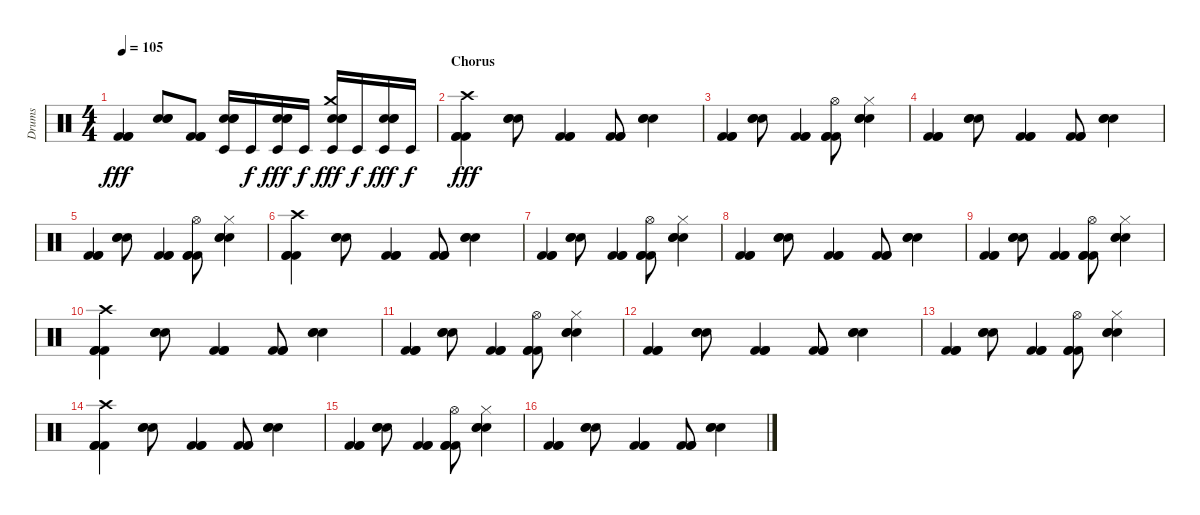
\track ("Drums" "Drums") {instrument percussion}
\staff {score}
\articulation defaults
\ts (4 4)
\tempo 105
\clef neutral
\ks c
("Kick (hit) 2" "Kick (hit) 2" "Kick (hit) 2").4{dy fff} ("Electric Snare (hit)" "Electric Snare (hit)" "Electric Snare (hit)").8 ("Kick (hit) 2" "Kick (hit) 2" "Kick (hit) 2").8 ("Electric Snare (hit)" "Electric Snare (hit)" "Electric Snare (hit)" "Timbale low (hit)").16 "Timbale low (hit)".16{dy f} ("Electric Snare (hit)" "Electric Snare (hit)" "Electric Snare (hit)" "Timbale low (hit)").16{dy fff} "Timbale low (hit)".16{dy f} ("Electric Snare (hit)" "Electric Snare (hit)" "Electric Snare (hit)" "Timbale low (hit)" "Crash medium (hit)").16{dy fff} "Timbale low (hit)".16{dy f} ("Electric Snare (hit)" "Electric Snare (hit)" "Electric Snare (hit)" "Timbale low (hit)").16{dy fff} "Timbale low (hit)".16{dy f} |
\section ("" "Chorus")
("Kick (hit) 2" "Kick (hit) 2" "Kick (hit) 2" "Crash high (hit)").4{dy fff} ("Electric Snare (hit)" "Electric Snare (hit)" "Electric Snare (hit)").8 ("Kick (hit) 2" "Kick (hit) 2" "Kick (hit) 2").4 ("Kick (hit) 2" "Kick (hit) 2" "Kick (hit) 2").8 ("Electric Snare (hit)" "Electric Snare (hit)" "Electric Snare (hit)").4 |
("Kick (hit) 2" "Kick (hit) 2" "Kick (hit) 2").4 ("Electric Snare (hit)" "Electric Snare (hit)" "Electric Snare (hit)").8 ("Kick (hit) 2" "Kick (hit) 2" "Kick (hit) 2").4 ("Kick (hit) 2" "Kick (hit) 2" "Kick (hit) 2" "Hi-Hat (open)").8 ("Electric Snare (hit)" "Electric Snare (hit)" "Electric Snare (hit)" "Hi-Hat (closed)").4 |
("Kick (hit) 2" "Kick (hit) 2" "Kick (hit) 2").4 ("Electric Snare (hit)" "Electric Snare (hit)" "Electric Snare (hit)").8 ("Kick (hit) 2" "Kick (hit) 2" "Kick (hit) 2").4 ("Kick (hit) 2" "Kick (hit) 2" "Kick (hit) 2").8 ("Electric Snare (hit)" "Electric Snare (hit)" "Electric Snare (hit)").4 |
("Kick (hit) 2" "Kick (hit) 2" "Kick (hit) 2").4 ("Electric Snare (hit)" "Electric Snare (hit)" "Electric Snare (hit)").8 ("Kick (hit) 2" "Kick (hit) 2" "Kick (hit) 2").4 ("Kick (hit) 2" "Kick (hit) 2" "Kick (hit) 2" "Hi-Hat (open)").8 ("Electric Snare (hit)" "Electric Snare (hit)" "Electric Snare (hit)" "Hi-Hat (closed)").4 |
("Kick (hit) 2" "Kick (hit) 2" "Kick (hit) 2" "Crash high (hit)").4 ("Electric Snare (hit)" "Electric Snare (hit)" "Electric Snare (hit)").8 ("Kick (hit) 2" "Kick (hit) 2" "Kick (hit) 2").4 ("Kick (hit) 2" "Kick (hit) 2" "Kick (hit) 2").8 ("Electric Snare (hit)" "Electric Snare (hit)" "Electric Snare (hit)").4 |
("Kick (hit) 2" "Kick (hit) 2" "Kick (hit) 2").4 ("Electric Snare (hit)" "Electric Snare (hit)" "Electric Snare (hit)").8 ("Kick (hit) 2" "Kick (hit) 2" "Kick (hit) 2").4 ("Kick (hit) 2" "Kick (hit) 2" "Kick (hit) 2" "Hi-Hat (open)").8 ("Electric Snare (hit)" "Electric Snare (hit)" "Electric Snare (hit)" "Hi-Hat (closed)").4 |
("Kick (hit) 2" "Kick (hit) 2" "Kick (hit) 2").4 ("Electric Snare (hit)" "Electric Snare (hit)" "Electric Snare (hit)").8 ("Kick (hit) 2" "Kick (hit) 2" "Kick (hit) 2").4 ("Kick (hit) 2" "Kick (hit) 2" "Kick (hit) 2").8 ("Electric Snare (hit)" "Electric Snare (hit)" "Electric Snare (hit)").4 |
("Kick (hit) 2" "Kick (hit) 2" "Kick (hit) 2").4 ("Electric Snare (hit)" "Electric Snare (hit)" "Electric Snare (hit)").8 ("Kick (hit) 2" "Kick (hit) 2" "Kick (hit) 2").4 ("Kick (hit) 2" "Kick (hit) 2" "Kick (hit) 2" "Hi-Hat (open)").8 ("Electric Snare (hit)" "Electric Snare (hit)" "Electric Snare (hit)" "Hi-Hat (closed)").4 |
("Kick (hit) 2" "Kick (hit) 2" "Kick (hit) 2" "Crash high (hit)").4 ("Electric Snare (hit)" "Electric Snare (hit)" "Electric Snare (hit)").8 ("Kick (hit) 2" "Kick (hit) 2" "Kick (hit) 2").4 ("Kick (hit) 2" "Kick (hit) 2" "Kick (hit) 2").8 ("Electric Snare (hit)" "Electric Snare (hit)" "Electric Snare (hit)").4 |
("Kick (hit) 2" "Kick (hit) 2" "Kick (hit) 2").4 ("Electric Snare (hit)" "Electric Snare (hit)" "Electric Snare (hit)").8 ("Kick (hit) 2" "Kick (hit) 2" "Kick (hit) 2").4 ("Kick (hit) 2" "Kick (hit) 2" "Kick (hit) 2" "Hi-Hat (open)").8 ("Electric Snare (hit)" "Electric Snare (hit)" "Electric Snare (hit)" "Hi-Hat (closed)").4 |
("Kick (hit) 2" "Kick (hit) 2" "Kick (hit) 2").4 ("Electric Snare (hit)" "Electric Snare (hit)" "Electric Snare (hit)").8 ("Kick (hit) 2" "Kick (hit) 2" "Kick (hit) 2").4 ("Kick (hit) 2" "Kick (hit) 2" "Kick (hit) 2").8 ("Electric Snare (hit)" "Electric Snare (hit)" "Electric Snare (hit)").4 |
("Kick (hit) 2" "Kick (hit) 2" "Kick (hit) 2").4 ("Electric Snare (hit)" "Electric Snare (hit)" "Electric Snare (hit)").8 ("Kick (hit) 2" "Kick (hit) 2" "Kick (hit) 2").4 ("Kick (hit) 2" "Kick (hit) 2" "Kick (hit) 2" "Hi-Hat (open)").8 ("Electric Snare (hit)" "Electric Snare (hit)" "Electric Snare (hit)" "Hi-Hat (closed)").4 |
("Kick (hit) 2" "Kick (hit) 2" "Kick (hit) 2" "Crash high (hit)").4 ("Electric Snare (hit)" "Electric Snare (hit)" "Electric Snare (hit)").8 ("Kick (hit) 2" "Kick (hit) 2" "Kick (hit) 2").4 ("Kick (hit) 2" "Kick (hit) 2" "Kick (hit) 2").8 ("Electric Snare (hit)" "Electric Snare (hit)" "Electric Snare (hit)").4 |
("Kick (hit) 2" "Kick (hit) 2" "Kick (hit) 2").4 ("Electric Snare (hit)" "Electric Snare (hit)" "Electric Snare (hit)").8 ("Kick (hit) 2" "Kick (hit) 2" "Kick (hit) 2").4 ("Kick (hit) 2" "Kick (hit) 2" "Kick (hit) 2" "Hi-Hat (open)").8 ("Electric Snare (hit)" "Electric Snare (hit)" "Electric Snare (hit)" "Hi-Hat (closed)").4 |
("Kick (hit) 2" "Kick (hit) 2" "Kick (hit) 2").4 ("Electric Snare (hit)" "Electric Snare (hit)" "Electric Snare (hit)").8 ("Kick (hit) 2" "Kick (hit) 2" "Kick (hit) 2").4 ("Kick (hit) 2" "Kick (hit) 2" "Kick (hit) 2").8 ("Electric Snare (hit)" "Electric Snare (hit)" "Electric Snare (hit)").4
